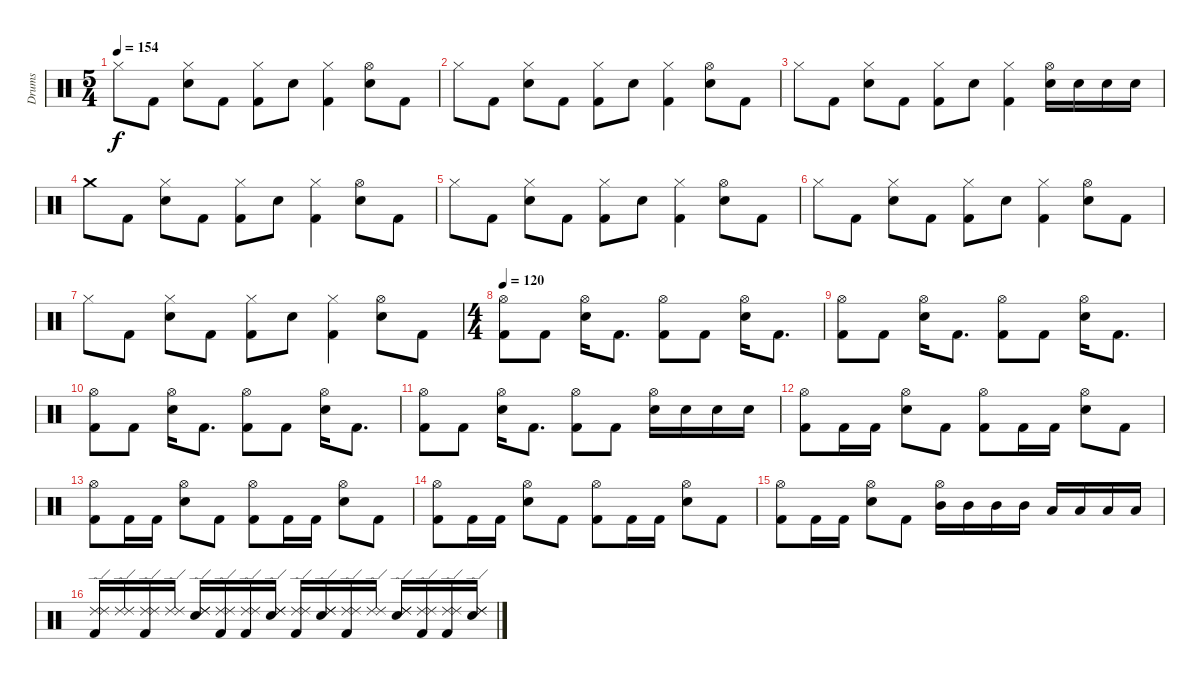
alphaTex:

\track ("Drums" "Drums") {instrument percussion}
\staff {score}
\articulation defaults
\ts (5 4)
\tempo 154
\clef neutral
\ks c "Hi-Hat (closed)".8{dy f} "Kick (hit) 2".8
("Hi-Hat (closed)" "Electric Snare (hit)").8 "Kick (hit) 2".8 ("Hi-Hat (closed)" "Kick (hit) 2").8 "Electric Snare (hit)".8 ("Hi-Hat (closed)" "Kick (hit) 2").4 ("Hi-Hat (open)" "Electric Snare (hit)").8 "Kick (hit) 2".8 |
"Hi-Hat (closed)".8 "Kick (hit) 2".8 ("Hi-Hat (closed)" "Electric Snare (hit)").8 "Kick (hit) 2".8 ("Hi-Hat (closed)" "Kick (hit) 2").8 "Electric Snare (hit)".8 ("Hi-Hat (closed)" "Kick (hit) 2").4 ("Hi-Hat (open)" "Electric Snare (hit)").8 "Kick (hit) 2".8 |
"Hi-Hat (closed)".8 "Kick (hit) 2".8 ("Hi-Hat (closed)" "Electric Snare (hit)").8 "Kick (hit) 2".8 ("Hi-Hat (closed)" "Kick (hit) 2").8 "Electric Snare (hit)".8 ("Hi-Hat (closed)" "Kick (hit) 2").4 ("Hi-Hat (open)" "Electric Snare (hit)").16 "Electric Snare (hit)".16 "Electric Snare (hit)".16 "Electric Snare (hit)".16 |
"Crash medium (hit)".8 "Kick (hit) 2".8 ("Hi-Hat (closed)" "Electric Snare (hit)").8 "Kick (hit) 2".8 ("Hi-Hat (closed)" "Kick (hit) 2").8 "Electric Snare (hit)".8 ("Hi-Hat (closed)" "Kick (hit) 2").4 ("Hi-Hat (open)" "Electric Snare (hit)").8 "Kick (hit) 2".8 |
"Hi-Hat (closed)".8 "Kick (hit) 2".8 ("Hi-Hat (closed)" "Electric Snare (hit)").8 "Kick (hit) 2".8 ("Hi-Hat (closed)" "Kick (hit) 2").8 "Electric Snare (hit)".8 ("Hi-Hat (closed)" "Kick (hit) 2").4 ("Hi-Hat (open)" "Electric Snare (hit)").8 "Kick (hit) 2".8 |
"Hi-Hat (closed)".8 "Kick (hit) 2".8 ("Hi-Hat (closed)" "Electric Snare (hit)").8 "Kick (hit) 2".8 ("Hi-Hat (closed)" "Kick (hit) 2").8 "Electric Snare (hit)".8 ("Hi-Hat (closed)" "Kick (hit) 2").4 ("Hi-Hat (open)" "Electric Snare (hit)").8 "Kick (hit) 2".8 |
"Hi-Hat (closed)".8 "Kick (hit) 2".8 ("Hi-Hat (closed)" "Electric Snare (hit)").8 "Kick (hit) 2".8 ("Hi-Hat (closed)" "Kick (hit) 2").8 "Electric Snare (hit)".8 ("Hi-Hat (closed)" "Kick (hit) 2").4 ("Hi-Hat (open)" "Electric Snare (hit)").8 "Kick (hit) 2".8 |
\ts (4 4)
\tempo 120
("Hi-Hat (open)" "Kick (hit) 2").8 "Kick (hit) 2".8 ("Hi-Hat (open)" "Electric Snare (hit)").16 "Kick (hit) 2".8{d} ("Hi-Hat (open)" "Kick (hit) 2").8 "Kick (hit) 2".8 ("Hi-Hat (open)" "Electric Snare (hit)").16 "Kick (hit) 2".8{d} |
("Hi-Hat (open)" "Kick (hit) 2").8 "Kick (hit) 2".8 ("Hi-Hat (open)" "Electric Snare (hit)").16 "Kick (hit) 2".8{d} ("Hi-Hat (open)" "Kick (hit) 2").8 "Kick (hit) 2".8 ("Hi-Hat (open)" "Electric Snare (hit)").16 "Kick (hit) 2".8{d} |
("Hi-Hat (open)" "Kick (hit) 2").8 "Kick (hit) 2".8 ("Hi-Hat (open)" "Electric Snare (hit)").16 "Kick (hit) 2".8{d} ("Hi-Hat (open)" "Kick (hit) 2").8 "Kick (hit) 2".8 ("Hi-Hat (open)" "Electric Snare (hit)").16 "Kick (hit) 2".8{d} |
("Hi-Hat (open)" "Kick (hit) 2").8 "Kick (hit) 2".8 ("Hi-Hat (open)" "Electric Snare (hit)").16 "Kick (hit) 2".8{d} ("Hi-Hat (open)" "Kick (hit) 2").8 "Kick (hit) 2".8 ("Hi-Hat (open)" "Electric Snare (hit)").16 "Electric Snare (hit)".16 "Electric Snare (hit)".16 "Electric Snare (hit)".16 |
("Hi-Hat (open)" "Kick (hit) 2").8 "Kick (hit) 2".16 "Kick (hit) 2".16 ("Hi-Hat (open)" "Electric Snare (hit)").8 "Kick (hit) 2".8 ("Hi-Hat (open)" "Kick (hit) 2").8 "Kick (hit) 2".16 "Kick (hit) 2".16 ("Hi-Hat (open)" "Electric Snare (hit)").8 "Kick (hit) 2".8 |
("Hi-Hat (open)" "Kick (hit) 2").8 "Kick (hit) 2".16 "Kick (hit) 2".16 ("Hi-Hat (open)" "Electric Snare (hit)").8 "Kick (hit) 2".8 ("Hi-Hat (open)" "Kick (hit) 2").8 "Kick (hit) 2".16 "Kick (hit) 2".16 ("Hi-Hat (open)" "Electric Snare (hit)").8 "Kick (hit) 2".8 |
("Hi-Hat (open)" "Kick (hit) 2").8 "Kick (hit) 2".16 "Kick (hit) 2".16 ("Hi-Hat (open)" "Electric Snare (hit)").8 "Kick (hit) 2".8 ("Hi-Hat (open)" "Kick (hit) 2").8 "Kick (hit) 2".16 "Kick (hit) 2".16 ("Hi-Hat (open)" "Electric Snare (hit)").8 "Kick (hit) 2".8 |
("Hi-Hat (open)" "Kick (hit) 2").8 "Kick (hit) 2".16 "Kick (hit) 2".16 ("Hi-Hat (open)" "Electric Snare (hit)").8 "Kick (hit) 2".8 ("Hi-Hat (open)" "Mid Tom (hit)").16 "Mid Tom (hit)".16 "Mid Tom (hit)".16 "Mid Tom (hit)".16 "Low Tom (hit)".16 "Low Tom (hit)".16 "Low Tom (hit)".16 "Low Tom (hit)".16 |
("Kick (hit) 2" "Ride (edge) 2" "Ride (edge) 2").16 ("Ride (edge) 2" "Ride (edge) 2").16 ("Kick (hit) 2" "Ride (edge) 2" "Ride (edge) 2").16 ("Ride (edge) 2" "Ride (edge) 2").16 ("Electric Snare (hit)" "Ride (edge) 2" "Ride (edge) 2").16 ("Kick (hit) 2" "Ride (edge) 2" "Ride (edge) 2").16 ("Kick (hit) 2" "Ride (edge) 2" "Ride (edge) 2").16 ("Ride (edge) 2" "Ride (edge) 2" "Electric Snare (hit)").16 ("Kick (hit) 2" "Ride (edge) 2" "Ride (edge) 2").16 ("Ride (edge) 2" "Ride (edge) 2" "Electric Snare (hit)").16 ("Kick (hit) 2" "Ride (edge) 2" "Ride (edge) 2").16 ("Ride (edge) 2" "Ride (edge) 2").16 ("Electric Snare (hit)" "Ride (edge) 2" "Ride (edge) 2").16 ("Kick (hit) 2" "Ride (edge) 2" "Ride (edge) 2").16 ("Kick (hit) 2" "Ride (edge) 2" "Ride (edge) 2").16 ("Ride (edge) 2" "Ride (edge) 2" "Electric Snare (hit)").16
